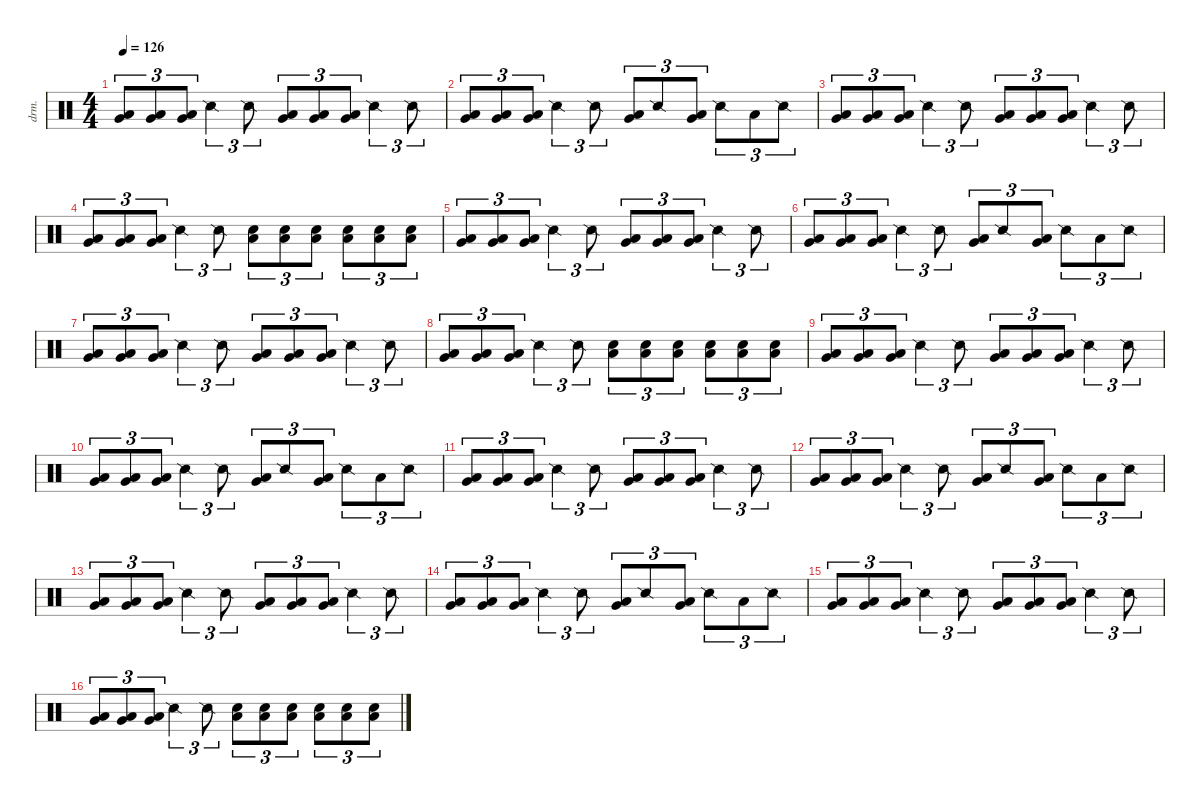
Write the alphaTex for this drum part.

\defaultSystemsLayout 4
\hideDynamics
\bracketExtendMode nobrackets
\otherSystemsTrackNameOrientation horizontal
\track ("Percussion" "drm.") {instrument percussion}
\staff {score}
\articulation defaults
\ts (4 4)
\tempo 126
\clef neutral
\ks c
("Very Low Tom (hit)" "Low Floor Tom (hit)").8{tu (3 2) dy ff beam Up} ("Very Low Tom (hit)" "Low Floor Tom (hit)").8{tu (3 2) beam Up} ("Very Low Tom (hit)" "Low Floor Tom (hit)").8{tu (3 2) beam Up} "Snare (side stick) 2".4{tu (3 2) dy f beam Down} "Snare (side stick) 2".8{tu (3 2) beam Down} ("Very Low Tom (hit)" "Low Floor Tom (hit)").8{tu (3 2) dy ff beam Up} ("Very Low Tom (hit)" "Low Floor Tom (hit)").8{tu (3 2) beam Up} ("Very Low Tom (hit)" "Low Floor Tom (hit)").8{tu (3 2) beam Up} "Snare (side stick) 2".4{tu (3 2) dy f beam Down} "Snare (side stick) 2".8{tu (3 2) beam Down} |
("Very Low Tom (hit)" "Low Floor Tom (hit)").8{tu (3 2) dy ff beam Up} ("Very Low Tom (hit)" "Low Floor Tom (hit)").8{tu (3 2) beam Up} ("Very Low Tom (hit)" "Low Floor Tom (hit)").8{tu (3 2) beam Up} "Snare (side stick) 2".4{tu (3 2) dy f beam Down} "Snare (side stick) 2".8{tu (3 2) beam Down} ("Very Low Tom (hit)" "Low Floor Tom (hit)").8{tu (3 2) dy ff beam Up} "Snare (side stick) 2".8{tu (3 2) dy f beam Up} ("Very Low Tom (hit)" "Low Floor Tom (hit)").8{tu (3 2) dy ff beam Up} "Snare (side stick) 2".8{tu (3 2) dy f beam Down} "Low Floor Tom (hit)".8{tu (3 2) beam Down} "Snare (side stick) 2".8{tu (3 2) dy ff beam Down} |
("Very Low Tom (hit)" "Low Floor Tom (hit)").8{tu (3 2) beam Up} ("Very Low Tom (hit)" "Low Floor Tom (hit)").8{tu (3 2) beam Up} ("Very Low Tom (hit)" "Low Floor Tom (hit)").8{tu (3 2) beam Up} "Snare (side stick) 2".4{tu (3 2) dy f beam Down} "Snare (side stick) 2".8{tu (3 2) beam Down} ("Very Low Tom (hit)" "Low Floor Tom (hit)").8{tu (3 2) dy ff beam Up} ("Very Low Tom (hit)" "Low Floor Tom (hit)").8{tu (3 2) beam Up} ("Very Low Tom (hit)" "Low Floor Tom (hit)").8{tu (3 2) beam Up} "Snare (side stick) 2".4{tu (3 2) dy f beam Down} "Snare (side stick) 2".8{tu (3 2) beam Down} |
("Very Low Tom (hit)" "Low Floor Tom (hit)").8{tu (3 2) dy ff beam Up} ("Very Low Tom (hit)" "Low Floor Tom (hit)").8{tu (3 2) beam Up} ("Very Low Tom (hit)" "Low Floor Tom (hit)").8{tu (3 2) beam Up} "Snare (side stick) 2".4{tu (3 2) dy f beam Down} "Snare (side stick) 2".8{tu (3 2) beam Down} ("Snare (hit) 2" "Low Floor Tom (hit)").8{tu (3 2) dy ff beam Down} ("Snare (hit) 2" "Low Floor Tom (hit)").8{tu (3 2) beam Down} ("Snare (hit) 2" "Low Floor Tom (hit)").8{tu (3 2) beam Down} ("Snare (hit) 2" "Low Floor Tom (hit)").8{tu (3 2) beam Down} ("Snare (hit) 2" "Low Floor Tom (hit)").8{tu (3 2) beam Down} ("Snare (hit) 2" "Low Floor Tom (hit)").8{tu (3 2) beam Down} |
("Very Low Tom (hit)" "Low Floor Tom (hit)").8{tu (3 2) beam Up} ("Very Low Tom (hit)" "Low Floor Tom (hit)").8{tu (3 2) beam Up} ("Very Low Tom (hit)" "Low Floor Tom (hit)").8{tu (3 2) beam Up} "Snare (side stick) 2".4{tu (3 2) dy f beam Down} "Snare (side stick) 2".8{tu (3 2) beam Down} ("Very Low Tom (hit)" "Low Floor Tom (hit)").8{tu (3 2) dy ff beam Up} ("Very Low Tom (hit)" "Low Floor Tom (hit)").8{tu (3 2) beam Up} ("Very Low Tom (hit)" "Low Floor Tom (hit)").8{tu (3 2) beam Up} "Snare (side stick) 2".4{tu (3 2) dy f beam Down} "Snare (side stick) 2".8{tu (3 2) beam Down} |
("Very Low Tom (hit)" "Low Floor Tom (hit)").8{tu (3 2) dy ff beam Up} ("Very Low Tom (hit)" "Low Floor Tom (hit)").8{tu (3 2) beam Up} ("Very Low Tom (hit)" "Low Floor Tom (hit)").8{tu (3 2) beam Up} "Snare (side stick) 2".4{tu (3 2) dy f beam Down} "Snare (side stick) 2".8{tu (3 2) beam Down} ("Very Low Tom (hit)" "Low Floor Tom (hit)").8{tu (3 2) dy ff beam Up} "Snare (side stick) 2".8{tu (3 2) dy f beam Up} ("Very Low Tom (hit)" "Low Floor Tom (hit)").8{tu (3 2) dy ff beam Up} "Snare (side stick) 2".8{tu (3 2) dy f beam Down} "Low Floor Tom (hit)".8{tu (3 2) beam Down} "Snare (side stick) 2".8{tu (3 2) dy ff beam Down} |
("Very Low Tom (hit)" "Low Floor Tom (hit)").8{tu (3 2) beam Up} ("Very Low Tom (hit)" "Low Floor Tom (hit)").8{tu (3 2) beam Up} ("Very Low Tom (hit)" "Low Floor Tom (hit)").8{tu (3 2) beam Up} "Snare (side stick) 2".4{tu (3 2) dy f beam Down} "Snare (side stick) 2".8{tu (3 2) beam Down} ("Very Low Tom (hit)" "Low Floor Tom (hit)").8{tu (3 2) dy ff beam Up} ("Very Low Tom (hit)" "Low Floor Tom (hit)").8{tu (3 2) beam Up} ("Very Low Tom (hit)" "Low Floor Tom (hit)").8{tu (3 2) beam Up} "Snare (side stick) 2".4{tu (3 2) dy f beam Down} "Snare (side stick) 2".8{tu (3 2) beam Down} |
("Very Low Tom (hit)" "Low Floor Tom (hit)").8{tu (3 2) dy ff beam Up} ("Very Low Tom (hit)" "Low Floor Tom (hit)").8{tu (3 2) beam Up} ("Very Low Tom (hit)" "Low Floor Tom (hit)").8{tu (3 2) beam Up} "Snare (side stick) 2".4{tu (3 2) dy f beam Down} "Snare (side stick) 2".8{tu (3 2) beam Down} ("Snare (hit) 2" "Low Floor Tom (hit)").8{tu (3 2) dy ff beam Down} ("Snare (hit) 2" "Low Floor Tom (hit)").8{tu (3 2) beam Down} ("Snare (hit) 2" "Low Floor Tom (hit)").8{tu (3 2) beam Down} ("Snare (hit) 2" "Low Floor Tom (hit)").8{tu (3 2) beam Down} ("Snare (hit) 2" "Low Floor Tom (hit)").8{tu (3 2) beam Down} ("Snare (hit) 2" "Low Floor Tom (hit)").8{tu (3 2) beam Down} |
("Very Low Tom (hit)" "Low Floor Tom (hit)").8{tu (3 2) beam Up} ("Very Low Tom (hit)" "Low Floor Tom (hit)").8{tu (3 2) beam Up} ("Very Low Tom (hit)" "Low Floor Tom (hit)").8{tu (3 2) beam Up} "Snare (side stick) 2".4{tu (3 2) dy f beam Down} "Snare (side stick) 2".8{tu (3 2) beam Down} ("Very Low Tom (hit)" "Low Floor Tom (hit)").8{tu (3 2) dy ff beam Up} ("Very Low Tom (hit)" "Low Floor Tom (hit)").8{tu (3 2) beam Up} ("Very Low Tom (hit)" "Low Floor Tom (hit)").8{tu (3 2) beam Up} "Snare (side stick) 2".4{tu (3 2) dy f beam Down} "Snare (side stick) 2".8{tu (3 2) beam Down} |
("Very Low Tom (hit)" "Low Floor Tom (hit)").8{tu (3 2) dy ff beam Up} ("Very Low Tom (hit)" "Low Floor Tom (hit)").8{tu (3 2) beam Up} ("Very Low Tom (hit)" "Low Floor Tom (hit)").8{tu (3 2) beam Up} "Snare (side stick) 2".4{tu (3 2) dy f beam Down} "Snare (side stick) 2".8{tu (3 2) beam Down} ("Very Low Tom (hit)" "Low Floor Tom (hit)").8{tu (3 2) dy ff beam Up} "Snare (side stick) 2".8{tu (3 2) dy f beam Up} ("Very Low Tom (hit)" "Low Floor Tom (hit)").8{tu (3 2) dy ff beam Up} "Snare (side stick) 2".8{tu (3 2) dy f beam Down} "Low Floor Tom (hit)".8{tu (3 2) beam Down} "Snare (side stick) 2".8{tu (3 2) dy ff beam Down} |
("Very Low Tom (hit)" "Low Floor Tom (hit)").8{tu (3 2) beam Up} ("Very Low Tom (hit)" "Low Floor Tom (hit)").8{tu (3 2) beam Up} ("Very Low Tom (hit)" "Low Floor Tom (hit)").8{tu (3 2) beam Up} "Snare (side stick) 2".4{tu (3 2) dy f beam Down} "Snare (side stick) 2".8{tu (3 2) beam Down} ("Very Low Tom (hit)" "Low Floor Tom (hit)").8{tu (3 2) dy ff beam Up} ("Very Low Tom (hit)" "Low Floor Tom (hit)").8{tu (3 2) beam Up} ("Very Low Tom (hit)" "Low Floor Tom (hit)").8{tu (3 2) beam Up} "Snare (side stick) 2".4{tu (3 2) dy f beam Down} "Snare (side stick) 2".8{tu (3 2) beam Down} |
("Very Low Tom (hit)" "Low Floor Tom (hit)").8{tu (3 2) dy ff beam Up} ("Very Low Tom (hit)" "Low Floor Tom (hit)").8{tu (3 2) beam Up} ("Very Low Tom (hit)" "Low Floor Tom (hit)").8{tu (3 2) beam Up} "Snare (side stick) 2".4{tu (3 2) dy f beam Down} "Snare (side stick) 2".8{tu (3 2) beam Down} ("Very Low Tom (hit)" "Low Floor Tom (hit)").8{tu (3 2) dy ff beam Up} "Snare (side stick) 2".8{tu (3 2) dy f beam Up} ("Very Low Tom (hit)" "Low Floor Tom (hit)").8{tu (3 2) dy ff beam Up} "Snare (side stick) 2".8{tu (3 2) dy f beam Down} "Low Floor Tom (hit)".8{tu (3 2) beam Down} "Snare (side stick) 2".8{tu (3 2) dy ff beam Down} |
("Very Low Tom (hit)" "Low Floor Tom (hit)").8{tu (3 2) beam Up} ("Very Low Tom (hit)" "Low Floor Tom (hit)").8{tu (3 2) beam Up} ("Very Low Tom (hit)" "Low Floor Tom (hit)").8{tu (3 2) beam Up} "Snare (side stick) 2".4{tu (3 2) dy f beam Down} "Snare (side stick) 2".8{tu (3 2) beam Down} ("Very Low Tom (hit)" "Low Floor Tom (hit)").8{tu (3 2) dy ff beam Up} ("Very Low Tom (hit)" "Low Floor Tom (hit)").8{tu (3 2) beam Up} ("Very Low Tom (hit)" "Low Floor Tom (hit)").8{tu (3 2) beam Up} "Snare (side stick) 2".4{tu (3 2) dy f beam Down} "Snare (side stick) 2".8{tu (3 2) beam Down} |
("Very Low Tom (hit)" "Low Floor Tom (hit)").8{tu (3 2) dy ff beam Up} ("Very Low Tom (hit)" "Low Floor Tom (hit)").8{tu (3 2) beam Up} ("Very Low Tom (hit)" "Low Floor Tom (hit)").8{tu (3 2) beam Up} "Snare (side stick) 2".4{tu (3 2) dy f beam Down} "Snare (side stick) 2".8{tu (3 2) beam Down} ("Very Low Tom (hit)" "Low Floor Tom (hit)").8{tu (3 2) dy ff beam Up} "Snare (side stick) 2".8{tu (3 2) dy f beam Up} ("Very Low Tom (hit)" "Low Floor Tom (hit)").8{tu (3 2) dy ff beam Up} "Snare (side stick) 2".8{tu (3 2) dy f beam Down} "Low Floor Tom (hit)".8{tu (3 2) beam Down} "Snare (side stick) 2".8{tu (3 2) dy ff beam Down} |
("Very Low Tom (hit)" "Low Floor Tom (hit)").8{tu (3 2) beam Up} ("Very Low Tom (hit)" "Low Floor Tom (hit)").8{tu (3 2) beam Up} ("Very Low Tom (hit)" "Low Floor Tom (hit)").8{tu (3 2) beam Up} "Snare (side stick) 2".4{tu (3 2) dy f beam Down} "Snare (side stick) 2".8{tu (3 2) beam Down} ("Very Low Tom (hit)" "Low Floor Tom (hit)").8{tu (3 2) dy ff beam Up} ("Very Low Tom (hit)" "Low Floor Tom (hit)").8{tu (3 2) beam Up} ("Very Low Tom (hit)" "Low Floor Tom (hit)").8{tu (3 2) beam Up} "Snare (side stick) 2".4{tu (3 2) dy f beam Down} "Snare (side stick) 2".8{tu (3 2) beam Down} |
("Very Low Tom (hit)" "Low Floor Tom (hit)").8{tu (3 2) dy ff beam Up} ("Very Low Tom (hit)" "Low Floor Tom (hit)").8{tu (3 2) beam Up} ("Very Low Tom (hit)" "Low Floor Tom (hit)").8{tu (3 2) beam Up} "Snare (side stick) 2".4{tu (3 2) dy f beam Down} "Snare (side stick) 2".8{tu (3 2) beam Down} ("Snare (hit) 2" "Low Floor Tom (hit)").8{tu (3 2) dy ff beam Down} ("Snare (hit) 2" "Low Floor Tom (hit)").8{tu (3 2) beam Down} ("Snare (hit) 2" "Low Floor Tom (hit)").8{tu (3 2) beam Down} ("Snare (hit) 2" "Low Floor Tom (hit)").8{tu (3 2) beam Down} ("Snare (hit) 2" "Low Floor Tom (hit)").8{tu (3 2) beam Down} ("Snare (hit) 2" "Low Floor Tom (hit)").8{tu (3 2) beam Down}
